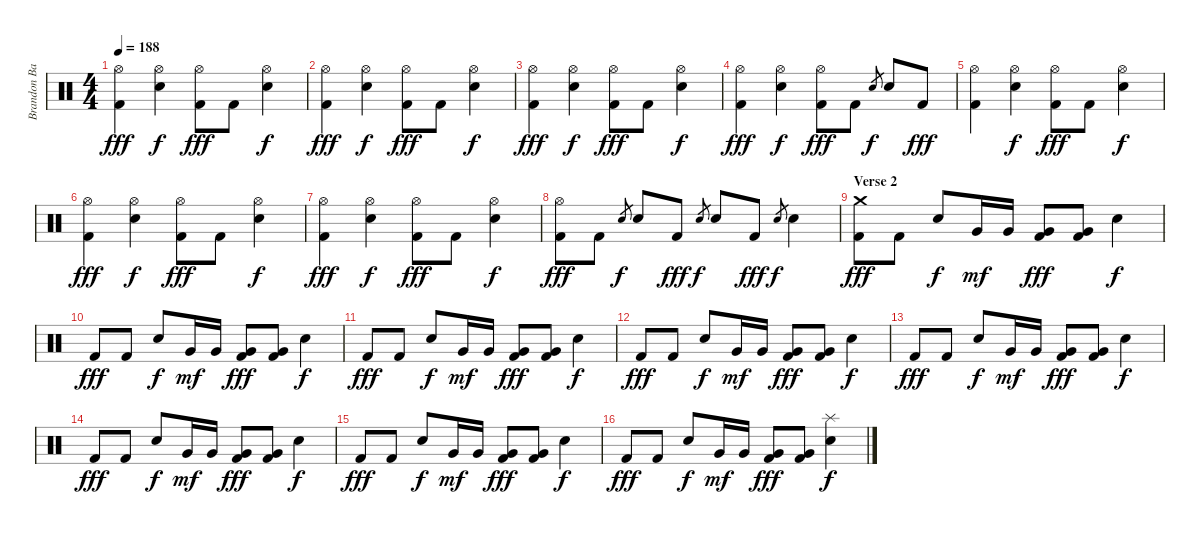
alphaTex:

\track ("Brandon Barnes (Drums)" "Brandon Ba") {instrument percussion}
\staff {score}
\articulation defaults
\ts (4 4)
\tempo 188
\clef neutral
\ks c
("Hi-Hat (open)" "Kick (hit) 2").4{dy fff} ("Hi-Hat (open)" "Electric Snare (hit)").4{dy f} ("Hi-Hat (open)" "Kick (hit) 2").8{dy fff} "Kick (hit) 2".8 ("Hi-Hat (open)" "Electric Snare (hit)").4{dy f} |
("Hi-Hat (open)" "Kick (hit) 2").4{dy fff} ("Hi-Hat (open)" "Electric Snare (hit)").4{dy f} ("Hi-Hat (open)" "Kick (hit) 2").8{dy fff} "Kick (hit) 2".8 ("Hi-Hat (open)" "Electric Snare (hit)").4{dy f} |
("Hi-Hat (open)" "Kick (hit) 2").4{dy fff} ("Hi-Hat (open)" "Electric Snare (hit)").4{dy f} ("Hi-Hat (open)" "Kick (hit) 2").8{dy fff} "Kick (hit) 2".8 ("Hi-Hat (open)" "Electric Snare (hit)").4{dy f} |
("Hi-Hat (open)" "Kick (hit) 2").4{dy fff} ("Hi-Hat (open)" "Electric Snare (hit)").4{dy f} ("Hi-Hat (open)" "Kick (hit) 2").8{dy fff} "Kick (hit) 2".8 "Electric Snare (hit)".8{gr dy f} "Electric Snare (hit)".8 "Kick (hit) 2".8{dy fff} |
("Hi-Hat (open)" "Kick (hit) 2").4 ("Hi-Hat (open)" "Electric Snare (hit)").4{dy f} ("Hi-Hat (open)" "Kick (hit) 2").8{dy fff} "Kick (hit) 2".8 ("Hi-Hat (open)" "Electric Snare (hit)").4{dy f} |
("Hi-Hat (open)" "Kick (hit) 2").4{dy fff} ("Hi-Hat (open)" "Electric Snare (hit)").4{dy f} ("Hi-Hat (open)" "Kick (hit) 2").8{dy fff} "Kick (hit) 2".8 ("Hi-Hat (open)" "Electric Snare (hit)").4{dy f} |
("Hi-Hat (open)" "Kick (hit) 2").4{dy fff} ("Hi-Hat (open)" "Electric Snare (hit)").4{dy f} ("Hi-Hat (open)" "Kick (hit) 2").8{dy fff} "Kick (hit) 2".8 ("Hi-Hat (open)" "Electric Snare (hit)").4{dy f} |
("Hi-Hat (open)" "Kick (hit) 2").8{dy fff} "Kick (hit) 2".8 "Electric Snare (hit)".8{gr dy f} "Electric Snare (hit)".8 "Kick (hit) 2".8{dy fff} "Electric Snare (hit)".8{gr dy f} "Electric Snare (hit)".8 "Kick (hit) 2".8{dy fff} "Electric Snare (hit)".8{gr dy f} "Electric Snare (hit)".4 |
\section ("" "Verse 2")
("Crash medium (hit)" "Kick (hit) 2").8{dy fff} "Kick (hit) 2".8 "Electric Snare (hit)".8{dy f} "Very Low Tom (hit)".16{dy mf} "Very Low Tom (hit)".16 ("Very Low Tom (hit)" "Kick (hit) 2").8{dy fff} ("Very Low Tom (hit)" "Kick (hit) 2").8 "Electric Snare (hit)".4{dy f} |
"Kick (hit) 2".8{dy fff} "Kick (hit) 2".8 "Electric Snare (hit)".8{dy f} "Very Low Tom (hit)".16{dy mf} "Very Low Tom (hit)".16 ("Very Low Tom (hit)" "Kick (hit) 2").8{dy fff} ("Very Low Tom (hit)" "Kick (hit) 2").8 "Electric Snare (hit)".4{dy f} |
"Kick (hit) 2".8{dy fff} "Kick (hit) 2".8 "Electric Snare (hit)".8{dy f} "Very Low Tom (hit)".16{dy mf} "Very Low Tom (hit)".16 ("Very Low Tom (hit)" "Kick (hit) 2").8{dy fff} ("Very Low Tom (hit)" "Kick (hit) 2").8 "Electric Snare (hit)".4{dy f} |
"Kick (hit) 2".8{dy fff} "Kick (hit) 2".8 "Electric Snare (hit)".8{dy f} "Very Low Tom (hit)".16{dy mf} "Very Low Tom (hit)".16 ("Very Low Tom (hit)" "Kick (hit) 2").8{dy fff} ("Very Low Tom (hit)" "Kick (hit) 2").8 "Electric Snare (hit)".4{dy f} |
"Kick (hit) 2".8{dy fff} "Kick (hit) 2".8 "Electric Snare (hit)".8{dy f} "Very Low Tom (hit)".16{dy mf} "Very Low Tom (hit)".16 ("Very Low Tom (hit)" "Kick (hit) 2").8{dy fff} ("Very Low Tom (hit)" "Kick (hit) 2").8 "Electric Snare (hit)".4{dy f} |
"Kick (hit) 2".8{dy fff} "Kick (hit) 2".8 "Electric Snare (hit)".8{dy f} "Very Low Tom (hit)".16{dy mf} "Very Low Tom (hit)".16 ("Very Low Tom (hit)" "Kick (hit) 2").8{dy fff} ("Very Low Tom (hit)" "Kick (hit) 2").8 "Electric Snare (hit)".4{dy f} |
"Kick (hit) 2".8{dy fff} "Kick (hit) 2".8 "Electric Snare (hit)".8{dy f} "Very Low Tom (hit)".16{dy mf} "Very Low Tom (hit)".16 ("Very Low Tom (hit)" "Kick (hit) 2").8{dy fff} ("Very Low Tom (hit)" "Kick (hit) 2").8 "Electric Snare (hit)".4{dy f} |
"Kick (hit) 2".8{dy fff} "Kick (hit) 2".8 "Electric Snare (hit)".8{dy f} "Very Low Tom (hit)".16{dy mf} "Very Low Tom (hit)".16 ("Very Low Tom (hit)" "Kick (hit) 2").8{dy fff} ("Very Low Tom (hit)" "Kick (hit) 2").8 ("Splash (hit)" "Electric Snare (hit)").4{dy f}
